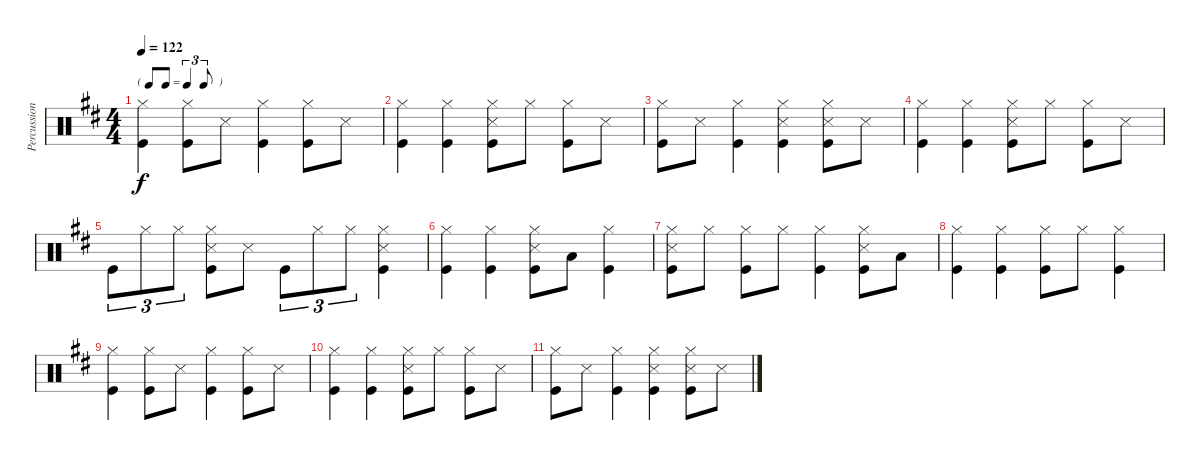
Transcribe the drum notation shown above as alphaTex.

\track ("Percussion" "Percussion") {instrument percussion}
\staff {score}
\articulation defaults
\ts (4 4)
\tf triplet8th
\tempo 122
\clef neutral
\ks d
("Hi-Hat (closed)" "Kick (hit)").4{dy f} ("Hi-Hat (closed)" "Kick (hit)").8 "Snare (side stick) 3".8 ("Hi-Hat (closed)" "Kick (hit)").4 ("Hi-Hat (closed)" "Kick (hit)").8 "Snare (side stick) 3".8 |
("Hi-Hat (closed)" "Kick (hit)").4 ("Hi-Hat (closed)" "Kick (hit)").4 ("Hi-Hat (closed)" "Snare (side stick) 3" "Kick (hit)").8 "Hi-Hat (closed)".8 ("Hi-Hat (closed)" "Kick (hit)").8 "Snare (side stick) 3".8 |
("Hi-Hat (closed)" "Kick (hit)").8 "Snare (side stick) 3".8 ("Hi-Hat (closed)" "Kick (hit)").4 ("Hi-Hat (closed)" "Snare (side stick) 3" "Kick (hit)").4 ("Hi-Hat (closed)" "Snare (side stick) 3" "Kick (hit)").8 "Snare (side stick) 3".8 |
("Hi-Hat (closed)" "Kick (hit)").4 ("Hi-Hat (closed)" "Kick (hit)").4 ("Hi-Hat (closed)" "Snare (side stick) 3" "Kick (hit)").8 "Hi-Hat (closed)".8 ("Hi-Hat (closed)" "Kick (hit)").8 "Snare (side stick) 3".8 |
"Kick (hit)".8{tu (3 2)} "Hi-Hat (closed)".8{tu (3 2)} "Hi-Hat (closed)".8{tu (3 2)} ("Hi-Hat (closed)" "Snare (side stick) 3" "Kick (hit)").8 "Snare (side stick) 3".8 "Kick (hit)".8{tu (3 2)} "Hi-Hat (closed)".8{tu (3 2)} "Hi-Hat (closed)".8{tu (3 2)} ("Hi-Hat (closed)" "Snare (side stick) 3" "Kick (hit)").4 |
("Hi-Hat (closed)" "Kick (hit)").4 ("Hi-Hat (closed)" "Kick (hit)").4 ("Hi-Hat (closed)" "Snare (side stick) 3" "Kick (hit)").8 "Low Tom (hit)".8 ("Hi-Hat (closed)" "Kick (hit)").4 |
("Hi-Hat (closed)" "Snare (side stick) 3" "Kick (hit)").8 "Hi-Hat (closed)".8 ("Hi-Hat (closed)" "Kick (hit)").8 "Hi-Hat (closed)".8 ("Hi-Hat (closed)" "Kick (hit)").4 ("Hi-Hat (closed)" "Snare (side stick) 3" "Kick (hit)").8 "Low Tom (hit)".8 |
("Hi-Hat (closed)" "Kick (hit)").4 ("Hi-Hat (closed)" "Kick (hit)").4 ("Hi-Hat (closed)" "Kick (hit)").8 "Hi-Hat (closed)".8 ("Hi-Hat (closed)" "Kick (hit)").4 |
("Hi-Hat (closed)" "Kick (hit)").4 ("Hi-Hat (closed)" "Kick (hit)").8 "Snare (side stick) 3".8 ("Hi-Hat (closed)" "Kick (hit)").4 ("Hi-Hat (closed)" "Kick (hit)").8 "Snare (side stick) 3".8 |
("Hi-Hat (closed)" "Kick (hit)").4 ("Hi-Hat (closed)" "Kick (hit)").4 ("Hi-Hat (closed)" "Snare (side stick) 3" "Kick (hit)").8 "Hi-Hat (closed)".8 ("Hi-Hat (closed)" "Kick (hit)").8 "Snare (side stick) 3".8 |
("Hi-Hat (closed)" "Kick (hit)").8 "Snare (side stick) 3".8 ("Hi-Hat (closed)" "Kick (hit)").4 ("Hi-Hat (closed)" "Snare (side stick) 3" "Kick (hit)").4 ("Hi-Hat (closed)" "Snare (side stick) 3" "Kick (hit)").8 "Snare (side stick) 3".8
